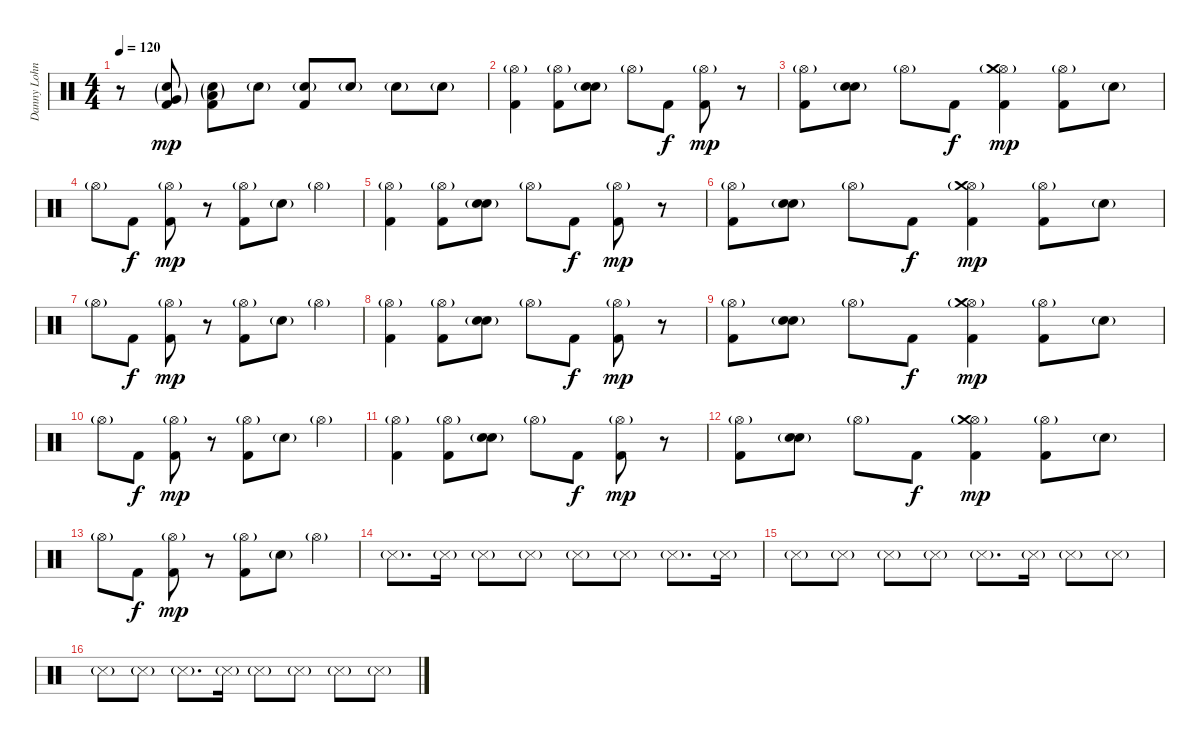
\track ("Danny Lohner" "Danny Lohn") {instrument percussion}
\staff {score}
\articulation defaults
\ts (4 4)
\tempo 120
\clef neutral
\ks c
r.8{dy mp} ("Very Low Tom (hit)"{g} "Hand Clap (hit)"{g} "Kick (hit) 2").8 ("Low Floor Tom (hit)"{g} "Hand Clap (hit)"{g} "Kick (hit) 2").8 "Hand Clap (hit)"{g}.8 ("Hand Clap (hit)"{g} "Kick (hit) 2").8 "Hand Clap (hit)"{g}.8 "Hand Clap (hit)"{g}.8 "Hand Clap (hit)"{g}.8 |
("Hi-Hat (open)"{g} "Kick (hit) 2").4 ("Hi-Hat (open)"{g} "Kick (hit) 2").8 ("Hand Clap (hit)"{g} "Electric Snare (hit)"{g}).8 "Hi-Hat (open)"{g}.8 "Kick (hit) 2".8{dy f} ("Hi-Hat (open)"{g} "Kick (hit) 2").8{dy mp} r.8 |
("Hi-Hat (open)"{g} "Kick (hit) 2").8 ("Hand Clap (hit)"{g} "Electric Snare (hit)"{g}).8 "Hi-Hat (open)"{g}.8 "Kick (hit) 2".8{dy f} ("Hi-Hat (open)"{g} "Crash medium (hit)"{g} "Kick (hit) 2").4{dy mp} ("Hi-Hat (open)"{g} "Kick (hit) 2").8 "Electric Snare (hit)"{g}.8 |
"Hi-Hat (open)"{g}.8 "Kick (hit) 2".8{dy f} ("Hi-Hat (open)"{g} "Kick (hit) 2").8{dy mp} r.8 ("Hi-Hat (open)"{g} "Kick (hit) 2").8 "Electric Snare (hit)"{g}.8 "Hi-Hat (open)"{g}.4 |
("Hi-Hat (open)"{g} "Kick (hit) 2").4 ("Hi-Hat (open)"{g} "Kick (hit) 2").8 ("Hand Clap (hit)"{g} "Electric Snare (hit)"{g}).8 "Hi-Hat (open)"{g}.8 "Kick (hit) 2".8{dy f} ("Hi-Hat (open)"{g} "Kick (hit) 2").8{dy mp} r.8 |
("Hi-Hat (open)"{g} "Kick (hit) 2").8 ("Hand Clap (hit)"{g} "Electric Snare (hit)"{g}).8 "Hi-Hat (open)"{g}.8 "Kick (hit) 2".8{dy f} ("Hi-Hat (open)"{g} "Crash medium (hit)"{g} "Kick (hit) 2").4{dy mp} ("Hi-Hat (open)"{g} "Kick (hit) 2").8 "Electric Snare (hit)"{g}.8 |
"Hi-Hat (open)"{g}.8 "Kick (hit) 2".8{dy f} ("Hi-Hat (open)"{g} "Kick (hit) 2").8{dy mp} r.8 ("Hi-Hat (open)"{g} "Kick (hit) 2").8 "Electric Snare (hit)"{g}.8 "Hi-Hat (open)"{g}.4 |
("Hi-Hat (open)"{g} "Kick (hit) 2").4 ("Hi-Hat (open)"{g} "Kick (hit) 2").8 ("Hand Clap (hit)"{g} "Electric Snare (hit)"{g}).8 "Hi-Hat (open)"{g}.8 "Kick (hit) 2".8{dy f} ("Hi-Hat (open)"{g} "Kick (hit) 2").8{dy mp} r.8 |
("Hi-Hat (open)"{g} "Kick (hit) 2").8 ("Hand Clap (hit)"{g} "Electric Snare (hit)"{g}).8 "Hi-Hat (open)"{g}.8 "Kick (hit) 2".8{dy f} ("Hi-Hat (open)"{g} "Crash medium (hit)"{g} "Kick (hit) 2").4{dy mp} ("Hi-Hat (open)"{g} "Kick (hit) 2").8 "Electric Snare (hit)"{g}.8 |
"Hi-Hat (open)"{g}.8 "Kick (hit) 2".8{dy f} ("Hi-Hat (open)"{g} "Kick (hit) 2").8{dy mp} r.8 ("Hi-Hat (open)"{g} "Kick (hit) 2").8 "Electric Snare (hit)"{g}.8 "Hi-Hat (open)"{g}.4 |
("Hi-Hat (open)"{g} "Kick (hit) 2").4 ("Hi-Hat (open)"{g} "Kick (hit) 2").8 ("Hand Clap (hit)"{g} "Electric Snare (hit)"{g}).8 "Hi-Hat (open)"{g}.8 "Kick (hit) 2".8{dy f} ("Hi-Hat (open)"{g} "Kick (hit) 2").8{dy mp} r.8 |
("Hi-Hat (open)"{g} "Kick (hit) 2").8 ("Hand Clap (hit)"{g} "Electric Snare (hit)"{g}).8 "Hi-Hat (open)"{g}.8 "Kick (hit) 2".8{dy f} ("Hi-Hat (open)"{g} "Crash medium (hit)"{g} "Kick (hit) 2").4{dy mp} ("Hi-Hat (open)"{g} "Kick (hit) 2").8 "Electric Snare (hit)"{g}.8 |
"Hi-Hat (open)"{g}.8 "Kick (hit) 2".8{dy f} ("Hi-Hat (open)"{g} "Kick (hit) 2").8{dy mp} r.8 ("Hi-Hat (open)"{g} "Kick (hit) 2").8 "Electric Snare (hit)"{g}.8 "Hi-Hat (open)"{g}.4 |
"Metronome (hit)"{g}.8{d} "Metronome (hit)"{g}.16 "Metronome (hit)"{g}.8 "Metronome (hit)"{g}.8 "Metronome (hit)"{g}.8 "Metronome (hit)"{g}.8 "Metronome (hit)"{g}.8{d} "Metronome (hit)"{g}.16 |
"Metronome (hit)"{g}.8 "Metronome (hit)"{g}.8 "Metronome (hit)"{g}.8 "Metronome (hit)"{g}.8 "Metronome (hit)"{g}.8{d} "Metronome (hit)"{g}.16 "Metronome (hit)"{g}.8 "Metronome (hit)"{g}.8 |
"Metronome (hit)"{g}.8 "Metronome (hit)"{g}.8 "Metronome (hit)"{g}.8{d} "Metronome (hit)"{g}.16 "Metronome (hit)"{g}.8 "Metronome (hit)"{g}.8 "Metronome (hit)"{g}.8 "Metronome (hit)"{g}.8
